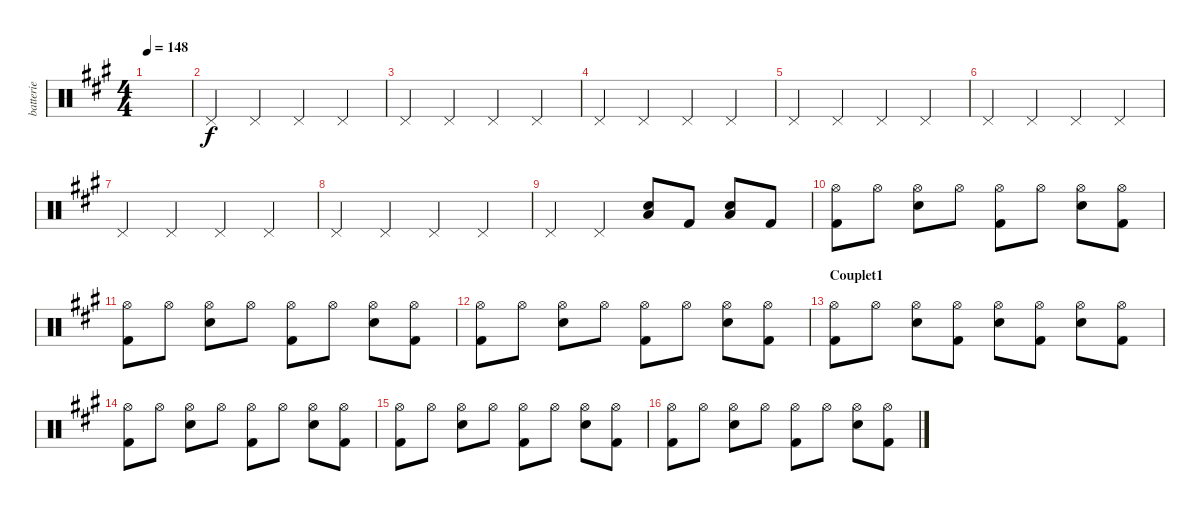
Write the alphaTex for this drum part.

\track ("batterie" "batterie") {instrument percussion}
\staff {score}
\articulation defaults
\ts (4 4)
\tempo 148
\clef neutral
\ks a
|
"Pedal Hi-Hat (hit)".4 "Pedal Hi-Hat (hit)".4 "Pedal Hi-Hat (hit)".4 "Pedal Hi-Hat (hit)".4 |
"Pedal Hi-Hat (hit)".4 "Pedal Hi-Hat (hit)".4 "Pedal Hi-Hat (hit)".4 "Pedal Hi-Hat (hit)".4 |
"Pedal Hi-Hat (hit)".4 "Pedal Hi-Hat (hit)".4 "Pedal Hi-Hat (hit)".4 "Pedal Hi-Hat (hit)".4 |
"Pedal Hi-Hat (hit)".4 "Pedal Hi-Hat (hit)".4 "Pedal Hi-Hat (hit)".4 "Pedal Hi-Hat (hit)".4 |
"Pedal Hi-Hat (hit)".4 "Pedal Hi-Hat (hit)".4 "Pedal Hi-Hat (hit)".4 "Pedal Hi-Hat (hit)".4 |
"Pedal Hi-Hat (hit)".4 "Pedal Hi-Hat (hit)".4 "Pedal Hi-Hat (hit)".4 "Pedal Hi-Hat (hit)".4 |
"Pedal Hi-Hat (hit)".4 "Pedal Hi-Hat (hit)".4 "Pedal Hi-Hat (hit)".4 "Pedal Hi-Hat (hit)".4 |
"Pedal Hi-Hat (hit)".4 "Pedal Hi-Hat (hit)".4 ("Snare (hit) 2" "Low Tom (hit)").8 "Kick (hit) 2".8 ("Snare (hit) 2" "Low Tom (hit)").8 "Kick (hit) 2".8 |
("Kick (hit) 2" "Hi-Hat (open)").8 "Hi-Hat (open)".8 ("Snare (hit) 2" "Hi-Hat (open)").8 "Hi-Hat (open)".8 ("Kick (hit) 2" "Hi-Hat (open)").8 "Hi-Hat (open)".8 ("Snare (hit) 2" "Hi-Hat (open)").8 ("Kick (hit) 2" "Hi-Hat (open)").8 |
("Kick (hit) 2" "Hi-Hat (open)").8 "Hi-Hat (open)".8 ("Snare (hit) 2" "Hi-Hat (open)").8 "Hi-Hat (open)".8 ("Kick (hit) 2" "Hi-Hat (open)").8 "Hi-Hat (open)".8 ("Snare (hit) 2" "Hi-Hat (open)").8 ("Kick (hit) 2" "Hi-Hat (open)").8 |
("Kick (hit) 2" "Hi-Hat (open)").8 "Hi-Hat (open)".8 ("Snare (hit) 2" "Hi-Hat (open)").8 "Hi-Hat (open)".8 ("Kick (hit) 2" "Hi-Hat (open)").8 "Hi-Hat (open)".8 ("Snare (hit) 2" "Hi-Hat (open)").8 ("Kick (hit) 2" "Hi-Hat (open)").8 |
\section ("" "Couplet1")
("Kick (hit) 2" "Hi-Hat (open)").8 "Hi-Hat (open)".8 ("Snare (hit) 2" "Hi-Hat (open)").8 ("Kick (hit) 2" "Hi-Hat (open)").8 ("Snare (hit) 2" "Hi-Hat (open)").8 ("Kick (hit) 2" "Hi-Hat (open)").8 ("Snare (hit) 2" "Hi-Hat (open)").8 ("Kick (hit) 2" "Hi-Hat (open)").8 |
("Kick (hit) 2" "Hi-Hat (open)").8 "Hi-Hat (open)".8 ("Snare (hit) 2" "Hi-Hat (open)").8 "Hi-Hat (open)".8 ("Kick (hit) 2" "Hi-Hat (open)").8 "Hi-Hat (open)".8 ("Snare (hit) 2" "Hi-Hat (open)").8 ("Kick (hit) 2" "Hi-Hat (open)").8 |
("Kick (hit) 2" "Hi-Hat (open)").8 "Hi-Hat (open)".8 ("Snare (hit) 2" "Hi-Hat (open)").8 "Hi-Hat (open)".8 ("Kick (hit) 2" "Hi-Hat (open)").8 "Hi-Hat (open)".8 ("Snare (hit) 2" "Hi-Hat (open)").8 ("Kick (hit) 2" "Hi-Hat (open)").8 |
("Kick (hit) 2" "Hi-Hat (open)").8 "Hi-Hat (open)".8 ("Snare (hit) 2" "Hi-Hat (open)").8 "Hi-Hat (open)".8 ("Kick (hit) 2" "Hi-Hat (open)").8 "Hi-Hat (open)".8 ("Snare (hit) 2" "Hi-Hat (open)").8 ("Kick (hit) 2" "Hi-Hat (open)").8
